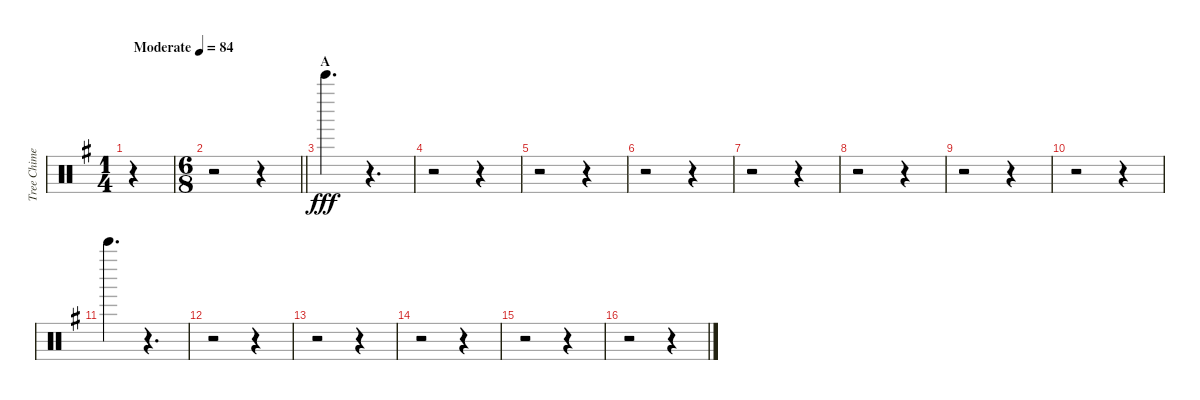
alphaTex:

\track ("Tree Chime" "Tree Chime") {instrument percussion}
\staff {score}
\articulation defaults
\ts (1 4)
\tempo (84 "Moderate")
\clef neutral
\ks g
r.4{dy fff} |
\ts (6 8)
\barLineRight lightlight
r.2 r.4 |
\section ("" "A")
"Bell Tree (hit)".4{d} r.4{d} |
r.2 r.4 |
r.2 r.4 |
r.2 r.4 |
r.2 r.4 |
r.2 r.4 |
r.2 r.4 |
r.2 r.4 |
"Bell Tree (hit)".4{d} r.4{d} |
r.2 r.4 |
r.2 r.4 |
r.2 r.4 |
r.2 r.4 |
r.2 r.4
